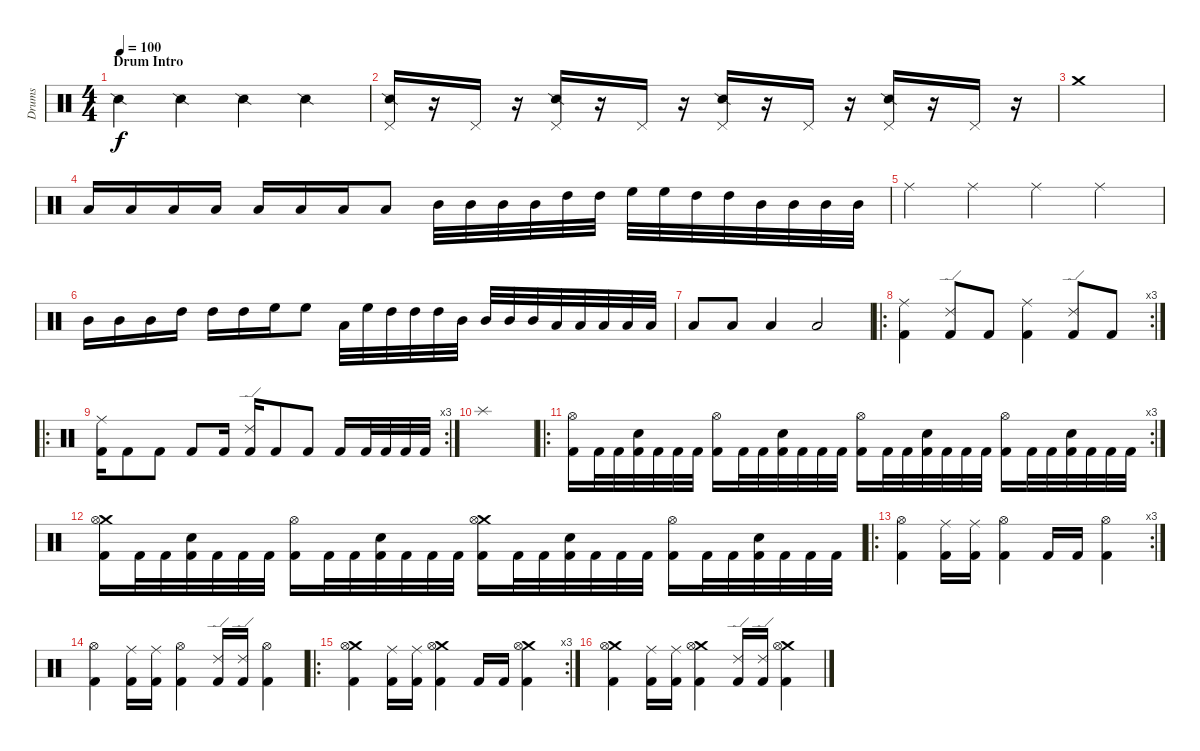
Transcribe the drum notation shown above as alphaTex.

\track ("Drums" "Drums") {instrument percussion}
\staff {score}
\articulation defaults
\ts (4 4)
\section ("" "Drum Intro")
\tempo 100
\clef neutral
\ks c "Snare (side stick) 2".4{dy f} "Snare (side stick) 2".4 "Snare (side stick) 2".4 "Snare (side stick) 2".4
|
("Pedal Hi-Hat (hit)" "Snare (side stick) 2").16 r.16 "Pedal Hi-Hat (hit)".16 r.16 ("Pedal Hi-Hat (hit)" "Snare (side stick) 2").16 r.16 "Pedal Hi-Hat (hit)".16 r.16 ("Pedal Hi-Hat (hit)" "Snare (side stick) 2").16 r.16 "Pedal Hi-Hat (hit)".16 r.16 ("Pedal Hi-Hat (hit)" "Snare (side stick) 2").16 r.16 "Pedal Hi-Hat (hit)".16 r.16 |
"Crash medium (hit)".1 |
"Low Tom (hit)".16 "Low Tom (hit)".16 "Low Tom (hit)".16 "Low Tom (hit)".16 "Low Tom (hit)".16 "Low Tom (hit)".16 "Low Tom (hit)".16 "Low Tom (hit)".8 "Mid Tom (hit)".32 "Mid Tom (hit)".32 "Mid Tom (hit)".32 "Mid Tom (hit)".32 "High Tom (hit)".32 "High Tom (hit)".32 "High Floor Tom (hit)".32 "High Floor Tom (hit)".32 "High Tom (hit)".32 "High Tom (hit)".32 "Mid Tom (hit)".32 "Mid Tom (hit)".32 "Mid Tom (hit)".32 "Mid Tom (hit)".32 |
"Ride (middle)".4 "Ride (middle)".4 "Ride (middle)".4 "Ride (middle)".4 |
"Mid Tom (hit)".16 "Mid Tom (hit)".16 "Mid Tom (hit)".16 "High Tom (hit)".16 "High Tom (hit)".16 "High Tom (hit)".16 "High Floor Tom (hit)".16 "High Floor Tom (hit)".8 "Low Tom (hit)".32 "High Floor Tom (hit)".32 "High Tom (hit)".32 "High Tom (hit)".32 "High Tom (hit)".32 "Mid Tom (hit)".32 "Mid Tom (hit)".32 "Mid Tom (hit)".32 "Mid Tom (hit)".32 "Low Tom (hit)".32 "Low Tom (hit)".32 "Low Tom (hit)".32 "Low Tom (hit)".32 "Low Tom (hit)".32 |
"Low Tom (hit)".8 "Low Tom (hit)".8 "Low Tom (hit)".4 "Low Tom (hit)".2 |
\ro
\rc 3
("Ride (middle)" "Kick (hit) 2").4 ("Ride (edge) 2" "Kick (hit) 2").8 "Kick (hit) 2".8 ("Ride (middle)" "Kick (hit) 2").4 ("Ride (edge) 2" "Kick (hit) 2").8 "Kick (hit) 2".8 |
\ro
\rc 3
("Ride (middle)" "Kick (hit) 2").16 "Kick (hit) 2".8 "Kick (hit) 2".8 "Kick (hit) 2".8 "Kick (hit) 2".16 ("Ride (edge) 2" "Kick (hit) 2").16 "Kick (hit) 2".8 "Kick (hit) 2".8 "Kick (hit) 2".16 "Kick (hit) 2".32 "Kick (hit) 2".32 "Kick (hit) 2".32 "Kick (hit) 2".32 |
"Splash (hit)".1 |
\ro
\rc 3
("Hi-Hat (open)" "Kick (hit) 2").16 "Kick (hit) 2".32 "Kick (hit) 2".32 ("Snare (hit) 2" "Kick (hit) 2").32 "Kick (hit) 2".32 "Kick (hit) 2".32 "Kick (hit) 2".32 ("Hi-Hat (open)" "Kick (hit) 2").16 "Kick (hit) 2".32 "Kick (hit) 2".32 ("Snare (hit) 2" "Kick (hit) 2").32 "Kick (hit) 2".32 "Kick (hit) 2".32 "Kick (hit) 2".32 ("Hi-Hat (open)" "Kick (hit) 2").16 "Kick (hit) 2".32 "Kick (hit) 2".32 ("Snare (hit) 2" "Kick (hit) 2").32 "Kick (hit) 2".32 "Kick (hit) 2".32 "Kick (hit) 2".32 ("Hi-Hat (open)" "Kick (hit) 2").16 "Kick (hit) 2".32 "Kick (hit) 2".32 ("Snare (hit) 2" "Kick (hit) 2").32 "Kick (hit) 2".32 "Kick (hit) 2".32 "Kick (hit) 2".32 |
("Crash medium (hit)" "Hi-Hat (open)" "Kick (hit) 2").16 "Kick (hit) 2".32 "Kick (hit) 2".32 ("Snare (hit) 2" "Kick (hit) 2").32 "Kick (hit) 2".32 "Kick (hit) 2".32 "Kick (hit) 2".32 ("Hi-Hat (open)" "Kick (hit) 2").16 "Kick (hit) 2".32 "Kick (hit) 2".32 ("Snare (hit) 2" "Kick (hit) 2").32 "Kick (hit) 2".32 "Kick (hit) 2".32 "Kick (hit) 2".32 ("Crash medium (hit)" "Hi-Hat (open)" "Kick (hit) 2").16 "Kick (hit) 2".32 "Kick (hit) 2".32 ("Snare (hit) 2" "Kick (hit) 2").32 "Kick (hit) 2".32 "Kick (hit) 2".32 "Kick (hit) 2".32 ("Hi-Hat (open)" "Kick (hit) 2").16 "Kick (hit) 2".32 "Kick (hit) 2".32 ("Snare (hit) 2" "Kick (hit) 2").32 "Kick (hit) 2".32 "Kick (hit) 2".32 "Kick (hit) 2".32 |
\ro
\rc 3
("Hi-Hat (open)" "Kick (hit) 2").4 ("Ride (middle)" "Kick (hit) 2").16 ("Ride (middle)" "Kick (hit) 2").16 ("Hi-Hat (open)" "Kick (hit) 2").4 "Kick (hit) 2".16 "Kick (hit) 2".16 ("Hi-Hat (open)" "Kick (hit) 2").4 |
("Hi-Hat (open)" "Kick (hit) 2").4 ("Ride (middle)" "Kick (hit) 2").16 ("Ride (middle)" "Kick (hit) 2").16 ("Hi-Hat (open)" "Kick (hit) 2").4 ("Ride (edge) 2" "Kick (hit) 2").16 ("Ride (edge) 2" "Kick (hit) 2").16 ("Hi-Hat (open)" "Kick (hit) 2").4 |
\ro
\rc 3
("Crash medium (hit)" "Hi-Hat (open)" "Kick (hit) 2").4 ("Ride (middle)" "Kick (hit) 2").16 ("Ride (middle)" "Kick (hit) 2").16 ("Crash medium (hit)" "Hi-Hat (open)" "Kick (hit) 2").4 "Kick (hit) 2".16 "Kick (hit) 2".16 ("Crash medium (hit)" "Hi-Hat (open)" "Kick (hit) 2").4 |
("Crash medium (hit)" "Hi-Hat (open)" "Kick (hit) 2").4 ("Ride (middle)" "Kick (hit) 2").16 ("Ride (middle)" "Kick (hit) 2").16 ("Crash medium (hit)" "Hi-Hat (open)" "Kick (hit) 2").4 ("Ride (edge) 2" "Kick (hit) 2").16 ("Ride (edge) 2" "Kick (hit) 2").16 ("Crash medium (hit)" "Hi-Hat (open)" "Kick (hit) 2").4
